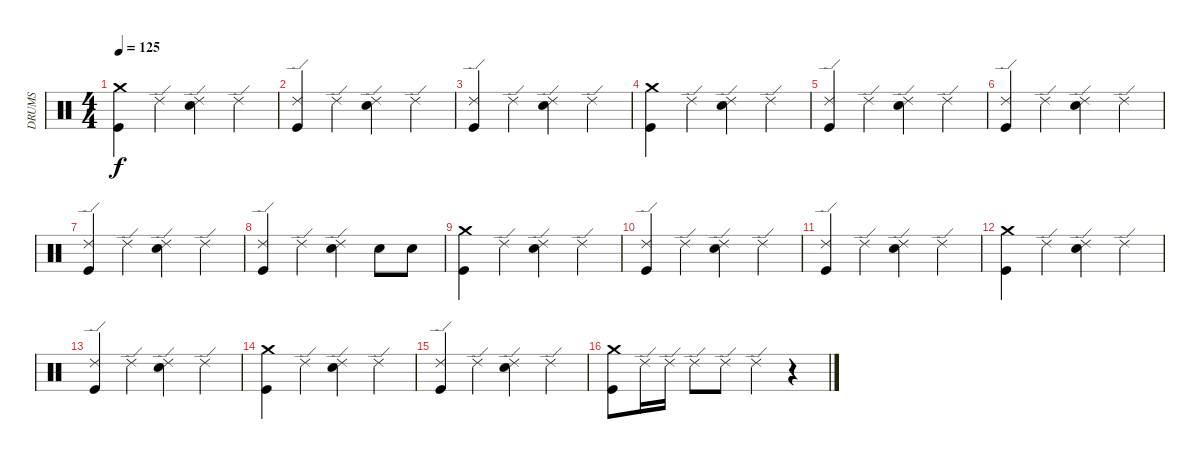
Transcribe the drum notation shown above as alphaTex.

\track ("DRUMS" "DRUMS") {instrument percussion}
\staff {score}
\articulation defaults
\ts (4 4)
\tempo 125
\clef neutral
\ks c
("Crash medium (hit)" "Kick (hit)").4{dy f} "Ride (edge) 2".4 ("Ride (edge) 2" "Snare (hit) 2").4 "Ride (edge) 2".4 |
("Ride (edge) 2" "Kick (hit)").4 "Ride (edge) 2".4 ("Ride (edge) 2" "Snare (hit) 2").4 "Ride (edge) 2".4 |
("Ride (edge) 2" "Kick (hit)").4 "Ride (edge) 2".4 ("Ride (edge) 2" "Snare (hit) 2").4 "Ride (edge) 2".4 |
("Crash medium (hit)" "Kick (hit)").4 "Ride (edge) 2".4 ("Ride (edge) 2" "Snare (hit) 2").4 "Ride (edge) 2".4 |
("Ride (edge) 2" "Kick (hit)").4 "Ride (edge) 2".4 ("Ride (edge) 2" "Snare (hit) 2").4 "Ride (edge) 2".4 |
("Ride (edge) 2" "Kick (hit)").4 "Ride (edge) 2".4 ("Ride (edge) 2" "Snare (hit) 2").4 "Ride (edge) 2".4 |
("Ride (edge) 2" "Kick (hit)").4 "Ride (edge) 2".4 ("Ride (edge) 2" "Snare (hit) 2").4 "Ride (edge) 2".4 |
("Ride (edge) 2" "Kick (hit)").4 "Ride (edge) 2".4 ("Snare (hit) 2" "Ride (edge) 2").4 "Snare (hit) 2".8 "Snare (hit) 2".8 |
("Crash medium (hit)" "Kick (hit)").4 "Ride (edge) 2".4 ("Ride (edge) 2" "Snare (hit) 2").4 "Ride (edge) 2".4 |
("Kick (hit)" "Ride (edge) 2").4 "Ride (edge) 2".4 ("Snare (hit) 2" "Ride (edge) 2").4 "Ride (edge) 2".4 |
("Kick (hit)" "Ride (edge) 2").4 "Ride (edge) 2".4 ("Snare (hit) 2" "Ride (edge) 2").4 "Ride (edge) 2".4 |
("Kick (hit)" "Crash medium (hit)").4 "Ride (edge) 2".4 ("Snare (hit) 2" "Ride (edge) 2").4 "Ride (edge) 2".4 |
("Kick (hit)" "Ride (edge) 2").4 "Ride (edge) 2".4 ("Snare (hit) 2" "Ride (edge) 2").4 "Ride (edge) 2".4 |
("Kick (hit)" "Crash medium (hit)").4 "Ride (edge) 2".4 ("Snare (hit) 2" "Ride (edge) 2").4 "Ride (edge) 2".4 |
("Kick (hit)" "Ride (edge) 2").4 "Ride (edge) 2".4 ("Snare (hit) 2" "Ride (edge) 2").4 "Ride (edge) 2".4 |
("Crash medium (hit)" "Kick (hit)").8 "Ride (edge) 2".16 "Ride (edge) 2".16 "Ride (edge) 2".8 "Ride (edge) 2".8 "Ride (edge) 2".4 r.4
